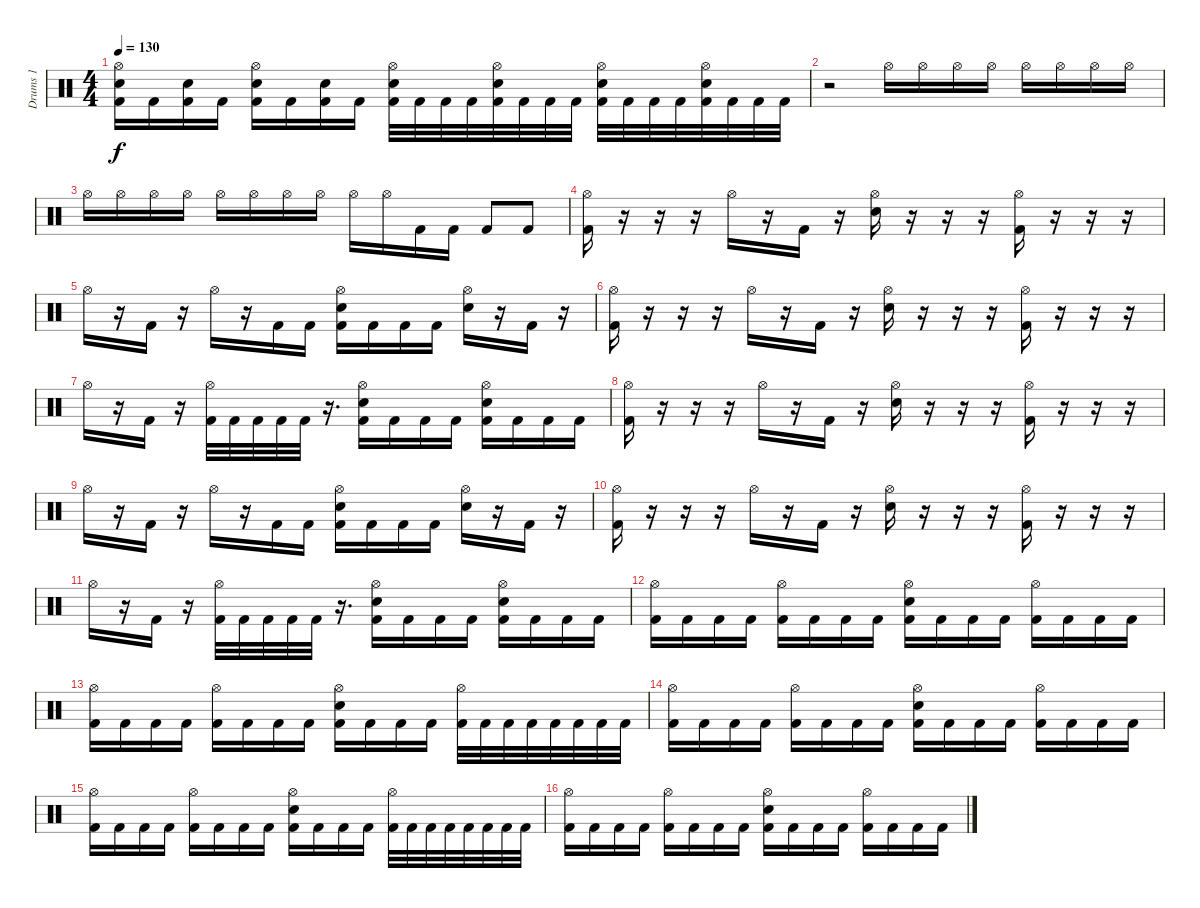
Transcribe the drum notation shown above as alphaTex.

\track ("Drums 1" "Drums 1") {instrument percussion}
\staff {score}
\articulation defaults
\ts (4 4)
\tempo 130
\clef neutral
\ks c
("Hi-Hat (open)" "Snare (hit) 2" "Kick (hit) 2").16{dy f} "Kick (hit) 2".16 ("Snare (hit) 2" "Kick (hit) 2").16 "Kick (hit) 2".16 ("Hi-Hat (open)" "Snare (hit) 2" "Kick (hit) 2").16 "Kick (hit) 2".16 ("Snare (hit) 2" "Kick (hit) 2").16 "Kick (hit) 2".16 ("Hi-Hat (open)" "Snare (hit) 2" "Kick (hit) 2").32 "Kick (hit) 2".32 "Kick (hit) 2".32 "Kick (hit) 2".32 ("Hi-Hat (open)" "Snare (hit) 2" "Kick (hit) 2").32 "Kick (hit) 2".32 "Kick (hit) 2".32 "Kick (hit) 2".32 ("Hi-Hat (open)" "Snare (hit) 2" "Kick (hit) 2").32 "Kick (hit) 2".32 "Kick (hit) 2".32 "Kick (hit) 2".32 ("Hi-Hat (open)" "Snare (hit) 2" "Kick (hit) 2").32 "Kick (hit) 2".32 "Kick (hit) 2".32 "Kick (hit) 2".32 |
r.2 "Hi-Hat (open)".16{volume 3} "Hi-Hat (open)".16 "Hi-Hat (open)".16 "Hi-Hat (open)".16 "Hi-Hat (open)".16 "Hi-Hat (open)".16 "Hi-Hat (open)".16 "Hi-Hat (open)".16 |
"Hi-Hat (open)".16{volume 16} "Hi-Hat (open)".16 "Hi-Hat (open)".16 "Hi-Hat (open)".16 "Hi-Hat (open)".16 "Hi-Hat (open)".16 "Hi-Hat (open)".16 "Hi-Hat (open)".16 "Hi-Hat (open)".16 "Hi-Hat (open)".16 "Kick (hit) 2".16 "Kick (hit) 2".16 "Kick (hit) 2".8 "Kick (hit) 2".8 |
("Hi-Hat (open)" "Kick (hit) 2").16 r.16 r.16 r.16 "Hi-Hat (open)".16 r.16 "Kick (hit) 2".16 r.16 ("Hi-Hat (open)" "Snare (hit) 2").16 r.16 r.16 r.16 ("Hi-Hat (open)" "Kick (hit) 2").16 r.16 r.16 r.16 |
"Hi-Hat (open)".16 r.16 "Kick (hit) 2".16 r.16 "Hi-Hat (open)".16 r.16 "Kick (hit) 2".16 "Kick (hit) 2".16 ("Hi-Hat (open)" "Snare (hit) 2" "Kick (hit) 2").16 "Kick (hit) 2".16 "Kick (hit) 2".16 "Kick (hit) 2".16 ("Hi-Hat (open)" "Snare (hit) 2").16 r.16 "Kick (hit) 2".16 r.16 |
("Hi-Hat (open)" "Kick (hit) 2").16 r.16 r.16 r.16 "Hi-Hat (open)".16 r.16 "Kick (hit) 2".16 r.16 ("Hi-Hat (open)" "Snare (hit) 2").16 r.16 r.16 r.16 ("Hi-Hat (open)" "Kick (hit) 2").16 r.16 r.16 r.16 |
"Hi-Hat (open)".16 r.16 "Kick (hit) 2".16 r.16 ("Hi-Hat (open)" "Kick (hit) 2").32 "Kick (hit) 2".32 "Kick (hit) 2".32 "Kick (hit) 2".32 "Kick (hit) 2".32 r.16{d} ("Hi-Hat (open)" "Snare (hit) 2" "Kick (hit) 2").16 "Kick (hit) 2".16 "Kick (hit) 2".16 "Kick (hit) 2".16 ("Hi-Hat (open)" "Snare (hit) 2" "Kick (hit) 2").16 "Kick (hit) 2".16 "Kick (hit) 2".16 "Kick (hit) 2".16 |
("Hi-Hat (open)" "Kick (hit) 2").16 r.16 r.16 r.16 "Hi-Hat (open)".16 r.16 "Kick (hit) 2".16 r.16 ("Hi-Hat (open)" "Snare (hit) 2").16 r.16 r.16 r.16 ("Hi-Hat (open)" "Kick (hit) 2").16 r.16 r.16 r.16 |
"Hi-Hat (open)".16 r.16 "Kick (hit) 2".16 r.16 "Hi-Hat (open)".16 r.16 "Kick (hit) 2".16 "Kick (hit) 2".16 ("Hi-Hat (open)" "Snare (hit) 2" "Kick (hit) 2").16 "Kick (hit) 2".16 "Kick (hit) 2".16 "Kick (hit) 2".16 ("Hi-Hat (open)" "Snare (hit) 2").16 r.16 "Kick (hit) 2".16 r.16 |
("Hi-Hat (open)" "Kick (hit) 2").16 r.16 r.16 r.16 "Hi-Hat (open)".16 r.16 "Kick (hit) 2".16 r.16 ("Hi-Hat (open)" "Snare (hit) 2").16 r.16 r.16 r.16 ("Hi-Hat (open)" "Kick (hit) 2").16 r.16 r.16 r.16 |
"Hi-Hat (open)".16 r.16 "Kick (hit) 2".16 r.16 ("Hi-Hat (open)" "Kick (hit) 2").32 "Kick (hit) 2".32 "Kick (hit) 2".32 "Kick (hit) 2".32 "Kick (hit) 2".32 r.16{d} ("Hi-Hat (open)" "Snare (hit) 2" "Kick (hit) 2").16 "Kick (hit) 2".16 "Kick (hit) 2".16 "Kick (hit) 2".16 ("Hi-Hat (open)" "Snare (hit) 2" "Kick (hit) 2").16 "Kick (hit) 2".16 "Kick (hit) 2".16 "Kick (hit) 2".16 |
("Hi-Hat (open)" "Kick (hit) 2").16 "Kick (hit) 2".16 "Kick (hit) 2".16 "Kick (hit) 2".16 ("Hi-Hat (open)" "Kick (hit) 2").16 "Kick (hit) 2".16 "Kick (hit) 2".16 "Kick (hit) 2".16 ("Hi-Hat (open)" "Snare (hit) 2" "Kick (hit) 2").16 "Kick (hit) 2".16 "Kick (hit) 2".16 "Kick (hit) 2".16 ("Hi-Hat (open)" "Kick (hit) 2").16 "Kick (hit) 2".16 "Kick (hit) 2".16 "Kick (hit) 2".16 |
("Hi-Hat (open)" "Kick (hit) 2").16 "Kick (hit) 2".16 "Kick (hit) 2".16 "Kick (hit) 2".16 ("Hi-Hat (open)" "Kick (hit) 2").16 "Kick (hit) 2".16 "Kick (hit) 2".16 "Kick (hit) 2".16 ("Hi-Hat (open)" "Snare (hit) 2" "Kick (hit) 2").16 "Kick (hit) 2".16 "Kick (hit) 2".16 "Kick (hit) 2".16 ("Hi-Hat (open)" "Kick (hit) 2").32 "Kick (hit) 2".32 "Kick (hit) 2".32 "Kick (hit) 2".32 "Kick (hit) 2".32 "Kick (hit) 2".32 "Kick (hit) 2".32 "Kick (hit) 2".32 |
("Hi-Hat (open)" "Kick (hit) 2").16 "Kick (hit) 2".16 "Kick (hit) 2".16 "Kick (hit) 2".16 ("Hi-Hat (open)" "Kick (hit) 2").16 "Kick (hit) 2".16 "Kick (hit) 2".16 "Kick (hit) 2".16 ("Hi-Hat (open)" "Snare (hit) 2" "Kick (hit) 2").16 "Kick (hit) 2".16 "Kick (hit) 2".16 "Kick (hit) 2".16 ("Hi-Hat (open)" "Kick (hit) 2").16 "Kick (hit) 2".16 "Kick (hit) 2".16 "Kick (hit) 2".16 |
("Hi-Hat (open)" "Kick (hit) 2").16 "Kick (hit) 2".16 "Kick (hit) 2".16 "Kick (hit) 2".16 ("Hi-Hat (open)" "Kick (hit) 2").16 "Kick (hit) 2".16 "Kick (hit) 2".16 "Kick (hit) 2".16 ("Hi-Hat (open)" "Snare (hit) 2" "Kick (hit) 2").16 "Kick (hit) 2".16 "Kick (hit) 2".16 "Kick (hit) 2".16 ("Hi-Hat (open)" "Kick (hit) 2").32 "Kick (hit) 2".32 "Kick (hit) 2".32 "Kick (hit) 2".32 "Kick (hit) 2".32 "Kick (hit) 2".32 "Kick (hit) 2".32 "Kick (hit) 2".32 |
("Hi-Hat (open)" "Kick (hit) 2").16 "Kick (hit) 2".16 "Kick (hit) 2".16 "Kick (hit) 2".16 ("Hi-Hat (open)" "Kick (hit) 2").16 "Kick (hit) 2".16 "Kick (hit) 2".16 "Kick (hit) 2".16 ("Hi-Hat (open)" "Snare (hit) 2" "Kick (hit) 2").16 "Kick (hit) 2".16 "Kick (hit) 2".16 "Kick (hit) 2".16 ("Hi-Hat (open)" "Kick (hit) 2").16 "Kick (hit) 2".16 "Kick (hit) 2".16 "Kick (hit) 2".16
